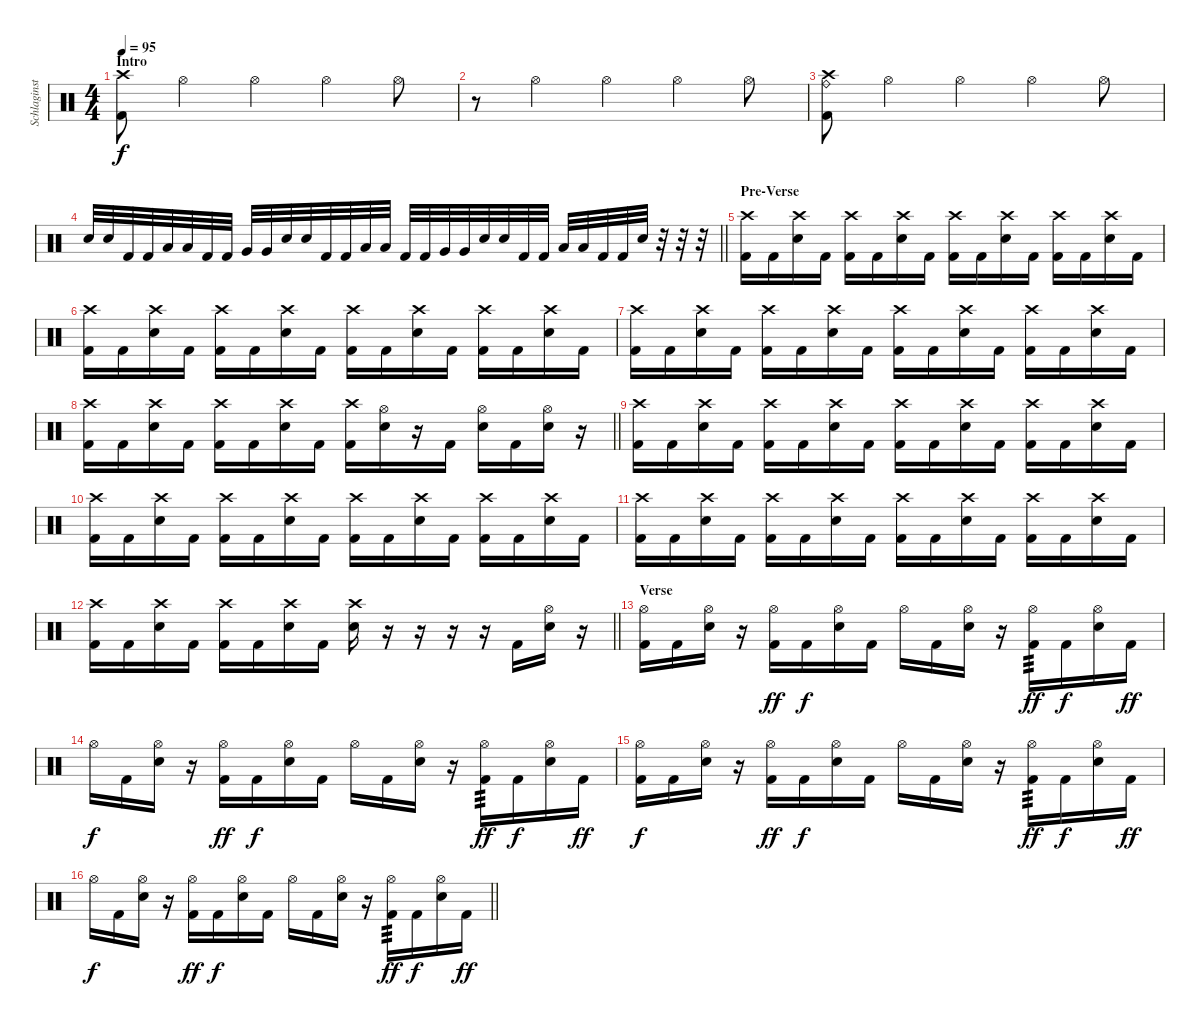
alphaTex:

\track ("Schlaginstrumente - Auswahl" "Schlaginst") {instrument percussion}
\staff {score}
\articulation defaults
\ts (4 4)
\section ("" "Intro")
\tempo 95
\clef neutral
\ks c
("Crash high (hit)" "Kick (hit) 2").8{dy f} "Hi-Hat (open)".4 "Hi-Hat (open)".4 "Hi-Hat (open)".4 "Hi-Hat (open)".8 |
r.8 "Hi-Hat (open)".4 "Hi-Hat (open)".4 "Hi-Hat (open)".4 "Hi-Hat (open)".8 |
("Crash high (hit)" "Ride (bell)" "Kick (hit) 2").8 "Hi-Hat (open)".4 "Hi-Hat (open)".4 "Hi-Hat (open)".4 "Hi-Hat (open)".8 |
\barLineRight lightlight "Electric Snare (hit)".32 "Electric Snare (hit)".32 "Kick (hit) 2".32 "Kick (hit) 2".32 "Low Tom (hit)".32 "Low Tom (hit)".32 "Kick (hit) 2".32 "Kick (hit) 2".32 "Very Low Tom (hit)".32 "Very Low Tom (hit)".32 "Electric Snare (hit)".32 "Electric Snare (hit)".32 "Kick (hit) 2".32 "Kick (hit) 2".32 "Low Tom (hit)".32 "Low Tom (hit)".32 "Kick (hit) 2".32 "Kick (hit) 2".32 "Very Low Tom (hit)".32 "Very Low Tom (hit)".32 "Electric Snare (hit)".32 "Electric Snare (hit)".32 "Kick (hit) 2".32 "Kick (hit) 2".32 "Low Tom (hit)".32 "Low Tom (hit)".32 "Kick (hit) 2".32 "Kick (hit) 2".32 "Electric Snare (hit)".32
r.32 r.32 r.32 |
\section ("" "Pre-Verse")
("Crash high (hit)" "Kick (hit) 2").16 "Kick (hit) 2".16 ("Crash high (hit)" "Electric Snare (hit)").16 "Kick (hit) 2".16 ("Crash high (hit)" "Kick (hit) 2").16 "Kick (hit) 2".16 ("Crash high (hit)" "Electric Snare (hit)").16 "Kick (hit) 2".16 ("Crash high (hit)" "Kick (hit) 2").16 "Kick (hit) 2".16 ("Crash high (hit)" "Electric Snare (hit)").16 "Kick (hit) 2".16 ("Crash high (hit)" "Kick (hit) 2").16 "Kick (hit) 2".16 ("Crash high (hit)" "Electric Snare (hit)").16 "Kick (hit) 2".16 |
("Crash high (hit)" "Kick (hit) 2").16 "Kick (hit) 2".16 ("Crash high (hit)" "Electric Snare (hit)").16 "Kick (hit) 2".16 ("Crash high (hit)" "Kick (hit) 2").16 "Kick (hit) 2".16 ("Crash high (hit)" "Electric Snare (hit)").16 "Kick (hit) 2".16 ("Crash high (hit)" "Kick (hit) 2").16 "Kick (hit) 2".16 ("Crash high (hit)" "Electric Snare (hit)").16 "Kick (hit) 2".16 ("Crash high (hit)" "Kick (hit) 2").16 "Kick (hit) 2".16 ("Crash high (hit)" "Electric Snare (hit)").16 "Kick (hit) 2".16 |
("Crash high (hit)" "Kick (hit) 2").16 "Kick (hit) 2".16 ("Crash high (hit)" "Electric Snare (hit)").16 "Kick (hit) 2".16 ("Crash high (hit)" "Kick (hit) 2").16 "Kick (hit) 2".16 ("Crash high (hit)" "Electric Snare (hit)").16 "Kick (hit) 2".16 ("Crash high (hit)" "Kick (hit) 2").16 "Kick (hit) 2".16 ("Crash high (hit)" "Electric Snare (hit)").16 "Kick (hit) 2".16 ("Crash high (hit)" "Kick (hit) 2").16 "Kick (hit) 2".16 ("Crash high (hit)" "Electric Snare (hit)").16 "Kick (hit) 2".16 |
\barLineRight lightlight
("Crash high (hit)" "Kick (hit) 2").16 "Kick (hit) 2".16 ("Crash high (hit)" "Electric Snare (hit)").16 "Kick (hit) 2".16 ("Crash high (hit)" "Kick (hit) 2").16 "Kick (hit) 2".16 ("Crash high (hit)" "Electric Snare (hit)").16 "Kick (hit) 2".16 ("Crash high (hit)" "Kick (hit) 2").16 ("Hi-Hat (open)" "Electric Snare (hit)").16 r.16 "Kick (hit) 2".16 ("Hi-Hat (open)" "Electric Snare (hit)").16 "Kick (hit) 2".16 ("Hi-Hat (open)" "Electric Snare (hit)").16 r.16 |
("Crash high (hit)" "Kick (hit) 2").16 "Kick (hit) 2".16 ("Crash high (hit)" "Electric Snare (hit)").16 "Kick (hit) 2".16 ("Crash high (hit)" "Kick (hit) 2").16 "Kick (hit) 2".16 ("Crash high (hit)" "Electric Snare (hit)").16 "Kick (hit) 2".16 ("Crash high (hit)" "Kick (hit) 2").16 "Kick (hit) 2".16 ("Crash high (hit)" "Electric Snare (hit)").16 "Kick (hit) 2".16 ("Crash high (hit)" "Kick (hit) 2").16 "Kick (hit) 2".16 ("Crash high (hit)" "Electric Snare (hit)").16 "Kick (hit) 2".16 |
("Crash high (hit)" "Kick (hit) 2").16 "Kick (hit) 2".16 ("Crash high (hit)" "Electric Snare (hit)").16 "Kick (hit) 2".16 ("Crash high (hit)" "Kick (hit) 2").16 "Kick (hit) 2".16 ("Crash high (hit)" "Electric Snare (hit)").16 "Kick (hit) 2".16 ("Crash high (hit)" "Kick (hit) 2").16 "Kick (hit) 2".16 ("Crash high (hit)" "Electric Snare (hit)").16 "Kick (hit) 2".16 ("Crash high (hit)" "Kick (hit) 2").16 "Kick (hit) 2".16 ("Crash high (hit)" "Electric Snare (hit)").16 "Kick (hit) 2".16 |
("Crash high (hit)" "Kick (hit) 2").16 "Kick (hit) 2".16 ("Crash high (hit)" "Electric Snare (hit)").16 "Kick (hit) 2".16 ("Crash high (hit)" "Kick (hit) 2").16 "Kick (hit) 2".16 ("Crash high (hit)" "Electric Snare (hit)").16 "Kick (hit) 2".16 ("Crash high (hit)" "Kick (hit) 2").16 "Kick (hit) 2".16 ("Crash high (hit)" "Electric Snare (hit)").16 "Kick (hit) 2".16 ("Crash high (hit)" "Kick (hit) 2").16 "Kick (hit) 2".16 ("Crash high (hit)" "Electric Snare (hit)").16 "Kick (hit) 2".16 |
\barLineRight lightlight
("Crash high (hit)" "Kick (hit) 2").16 "Kick (hit) 2".16 ("Crash high (hit)" "Electric Snare (hit)").16 "Kick (hit) 2".16 ("Crash high (hit)" "Kick (hit) 2").16 "Kick (hit) 2".16 ("Crash high (hit)" "Electric Snare (hit)").16 "Kick (hit) 2".16 ("Crash high (hit)" "Electric Snare (hit)").16 r.16 r.16 r.16 r.16 "Kick (hit) 2".16 ("Hi-Hat (open)" "Electric Snare (hit)").16 r.16 |
\section ("" "Verse")
("Hi-Hat (open)" "Kick (hit) 2").16 "Kick (hit) 2".16 ("Hi-Hat (open)" "Electric Snare (hit)").16 r.16 ("Hi-Hat (open)" "Kick (hit) 2").16{dy ff} "Kick (hit) 2".16{dy f} ("Hi-Hat (open)" "Electric Snare (hit)").16 "Kick (hit) 2".16 "Hi-Hat (open)".16 "Kick (hit) 2".16 ("Hi-Hat (open)" "Electric Snare (hit)").16 r.16 ("Hi-Hat (open)" "Kick (hit) 2").16{tp 3 dy ff} "Kick (hit) 2".16{dy f} ("Hi-Hat (open)" "Electric Snare (hit)").16 "Kick (hit) 2".16{dy ff} |
"Hi-Hat (open)".16{dy f} "Kick (hit) 2".16 ("Hi-Hat (open)" "Electric Snare (hit)").16 r.16 ("Hi-Hat (open)" "Kick (hit) 2").16{dy ff} "Kick (hit) 2".16{dy f} ("Hi-Hat (open)" "Electric Snare (hit)").16 "Kick (hit) 2".16 "Hi-Hat (open)".16 "Kick (hit) 2".16 ("Hi-Hat (open)" "Electric Snare (hit)").16 r.16 ("Hi-Hat (open)" "Kick (hit) 2").16{tp 3 dy ff} "Kick (hit) 2".16{dy f} ("Hi-Hat (open)" "Electric Snare (hit)").16 "Kick (hit) 2".16{dy ff} |
("Hi-Hat (open)" "Kick (hit) 2").16{dy f} "Kick (hit) 2".16 ("Hi-Hat (open)" "Electric Snare (hit)").16 r.16 ("Hi-Hat (open)" "Kick (hit) 2").16{dy ff} "Kick (hit) 2".16{dy f} ("Hi-Hat (open)" "Electric Snare (hit)").16 "Kick (hit) 2".16 "Hi-Hat (open)".16 "Kick (hit) 2".16 ("Hi-Hat (open)" "Electric Snare (hit)").16 r.16 ("Hi-Hat (open)" "Kick (hit) 2").16{tp 3 dy ff} "Kick (hit) 2".16{dy f} ("Hi-Hat (open)" "Electric Snare (hit)").16 "Kick (hit) 2".16{dy ff} |
\barLineRight lightlight "Hi-Hat (open)".16{dy f} "Kick (hit) 2".16
("Hi-Hat (open)" "Electric Snare (hit)").16 r.16 ("Hi-Hat (open)" "Kick (hit) 2").16{dy ff} "Kick (hit) 2".16{dy f} ("Hi-Hat (open)" "Electric Snare (hit)").16 "Kick (hit) 2".16 "Hi-Hat (open)".16 "Kick (hit) 2".16 ("Hi-Hat (open)" "Electric Snare (hit)").16 r.16 ("Hi-Hat (open)" "Kick (hit) 2").16{tp 3 dy ff} "Kick (hit) 2".16{dy f} ("Hi-Hat (open)" "Electric Snare (hit)").16 "Kick (hit) 2".16{dy ff}
